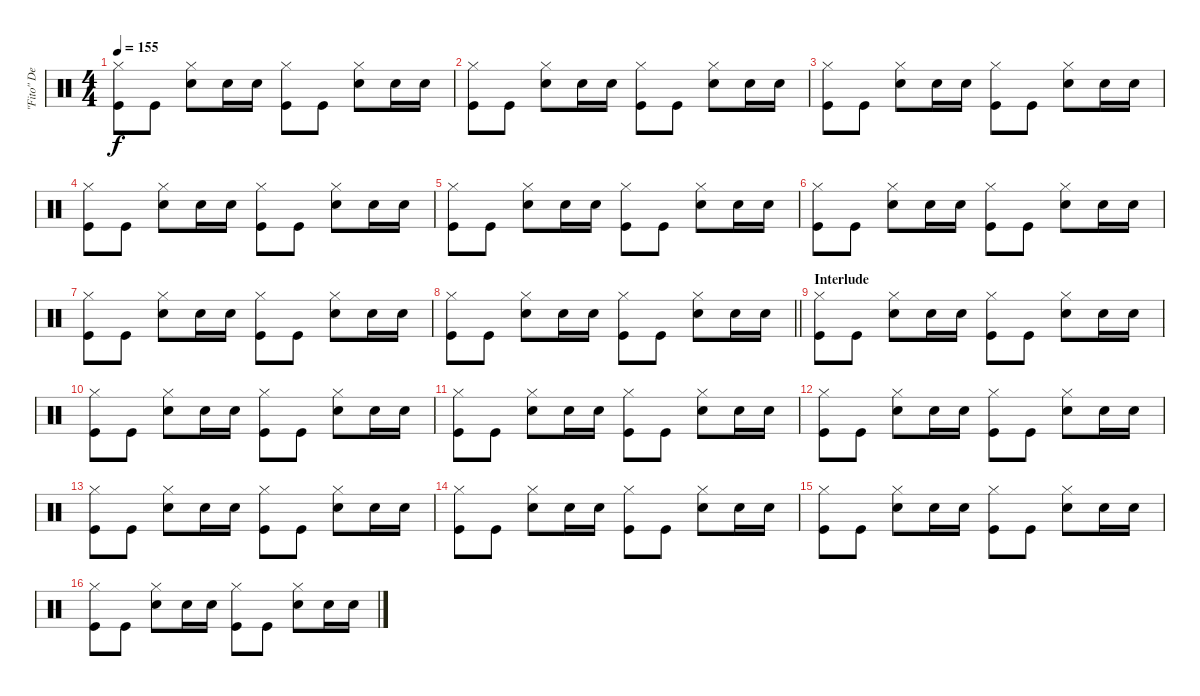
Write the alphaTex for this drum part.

\track ("\"Fito\" De La Parra" "\"Fito\" De ") {instrument percussion}
\staff {score}
\articulation defaults
\ts (4 4)
\tempo 155
\clef neutral
\ks c
("Hi-Hat (closed)" "Kick (hit)").8{dy f} "Kick (hit)".8 ("Hi-Hat (closed)" "Snare (hit) 2").8 "Snare (hit) 2".16 "Snare (hit) 2".16 ("Hi-Hat (closed)" "Kick (hit)").8 "Kick (hit)".8 ("Hi-Hat (closed)" "Snare (hit) 2").8 "Snare (hit) 2".16 "Snare (hit) 2".16 |
("Hi-Hat (closed)" "Kick (hit)").8 "Kick (hit)".8 ("Hi-Hat (closed)" "Snare (hit) 2").8 "Snare (hit) 2".16 "Snare (hit) 2".16 ("Hi-Hat (closed)" "Kick (hit)").8 "Kick (hit)".8 ("Hi-Hat (closed)" "Snare (hit) 2").8 "Snare (hit) 2".16 "Snare (hit) 2".16 |
("Hi-Hat (closed)" "Kick (hit)").8 "Kick (hit)".8 ("Hi-Hat (closed)" "Snare (hit) 2").8 "Snare (hit) 2".16 "Snare (hit) 2".16 ("Hi-Hat (closed)" "Kick (hit)").8 "Kick (hit)".8 ("Hi-Hat (closed)" "Snare (hit) 2").8 "Snare (hit) 2".16 "Snare (hit) 2".16 |
("Hi-Hat (closed)" "Kick (hit)").8 "Kick (hit)".8 ("Hi-Hat (closed)" "Snare (hit) 2").8 "Snare (hit) 2".16 "Snare (hit) 2".16 ("Hi-Hat (closed)" "Kick (hit)").8 "Kick (hit)".8 ("Hi-Hat (closed)" "Snare (hit) 2").8 "Snare (hit) 2".16 "Snare (hit) 2".16 |
("Hi-Hat (closed)" "Kick (hit)").8 "Kick (hit)".8 ("Hi-Hat (closed)" "Snare (hit) 2").8 "Snare (hit) 2".16 "Snare (hit) 2".16 ("Hi-Hat (closed)" "Kick (hit)").8 "Kick (hit)".8 ("Hi-Hat (closed)" "Snare (hit) 2").8 "Snare (hit) 2".16 "Snare (hit) 2".16 |
("Hi-Hat (closed)" "Kick (hit)").8 "Kick (hit)".8 ("Hi-Hat (closed)" "Snare (hit) 2").8 "Snare (hit) 2".16 "Snare (hit) 2".16 ("Hi-Hat (closed)" "Kick (hit)").8 "Kick (hit)".8 ("Hi-Hat (closed)" "Snare (hit) 2").8 "Snare (hit) 2".16 "Snare (hit) 2".16 |
("Hi-Hat (closed)" "Kick (hit)").8 "Kick (hit)".8 ("Hi-Hat (closed)" "Snare (hit) 2").8 "Snare (hit) 2".16 "Snare (hit) 2".16 ("Hi-Hat (closed)" "Kick (hit)").8 "Kick (hit)".8 ("Hi-Hat (closed)" "Snare (hit) 2").8 "Snare (hit) 2".16 "Snare (hit) 2".16 |
\barLineRight lightlight
("Hi-Hat (closed)" "Kick (hit)").8 "Kick (hit)".8 ("Hi-Hat (closed)" "Snare (hit) 2").8 "Snare (hit) 2".16 "Snare (hit) 2".16 ("Hi-Hat (closed)" "Kick (hit)").8 "Kick (hit)".8 ("Hi-Hat (closed)" "Snare (hit) 2").8 "Snare (hit) 2".16 "Snare (hit) 2".16 |
\section ("" "Interlude")
("Hi-Hat (closed)" "Kick (hit)").8 "Kick (hit)".8 ("Hi-Hat (closed)" "Snare (hit) 2").8 "Snare (hit) 2".16 "Snare (hit) 2".16 ("Hi-Hat (closed)" "Kick (hit)").8 "Kick (hit)".8 ("Hi-Hat (closed)" "Snare (hit) 2").8 "Snare (hit) 2".16 "Snare (hit) 2".16 |
("Hi-Hat (closed)" "Kick (hit)").8 "Kick (hit)".8 ("Hi-Hat (closed)" "Snare (hit) 2").8 "Snare (hit) 2".16 "Snare (hit) 2".16 ("Hi-Hat (closed)" "Kick (hit)").8 "Kick (hit)".8 ("Hi-Hat (closed)" "Snare (hit) 2").8 "Snare (hit) 2".16 "Snare (hit) 2".16 |
("Hi-Hat (closed)" "Kick (hit)").8 "Kick (hit)".8 ("Hi-Hat (closed)" "Snare (hit) 2").8 "Snare (hit) 2".16 "Snare (hit) 2".16 ("Hi-Hat (closed)" "Kick (hit)").8 "Kick (hit)".8 ("Hi-Hat (closed)" "Snare (hit) 2").8 "Snare (hit) 2".16 "Snare (hit) 2".16 |
("Hi-Hat (closed)" "Kick (hit)").8 "Kick (hit)".8 ("Hi-Hat (closed)" "Snare (hit) 2").8 "Snare (hit) 2".16 "Snare (hit) 2".16 ("Hi-Hat (closed)" "Kick (hit)").8 "Kick (hit)".8 ("Hi-Hat (closed)" "Snare (hit) 2").8 "Snare (hit) 2".16 "Snare (hit) 2".16 |
("Hi-Hat (closed)" "Kick (hit)").8 "Kick (hit)".8 ("Hi-Hat (closed)" "Snare (hit) 2").8 "Snare (hit) 2".16 "Snare (hit) 2".16 ("Hi-Hat (closed)" "Kick (hit)").8 "Kick (hit)".8 ("Hi-Hat (closed)" "Snare (hit) 2").8 "Snare (hit) 2".16 "Snare (hit) 2".16 |
("Hi-Hat (closed)" "Kick (hit)").8 "Kick (hit)".8 ("Hi-Hat (closed)" "Snare (hit) 2").8 "Snare (hit) 2".16 "Snare (hit) 2".16 ("Hi-Hat (closed)" "Kick (hit)").8 "Kick (hit)".8 ("Hi-Hat (closed)" "Snare (hit) 2").8 "Snare (hit) 2".16 "Snare (hit) 2".16 |
("Hi-Hat (closed)" "Kick (hit)").8 "Kick (hit)".8 ("Hi-Hat (closed)" "Snare (hit) 2").8 "Snare (hit) 2".16 "Snare (hit) 2".16 ("Hi-Hat (closed)" "Kick (hit)").8 "Kick (hit)".8 ("Hi-Hat (closed)" "Snare (hit) 2").8 "Snare (hit) 2".16 "Snare (hit) 2".16 |
("Hi-Hat (closed)" "Kick (hit)").8 "Kick (hit)".8 ("Hi-Hat (closed)" "Snare (hit) 2").8 "Snare (hit) 2".16 "Snare (hit) 2".16 ("Hi-Hat (closed)" "Kick (hit)").8 "Kick (hit)".8 ("Hi-Hat (closed)" "Snare (hit) 2").8 "Snare (hit) 2".16 "Snare (hit) 2".16
